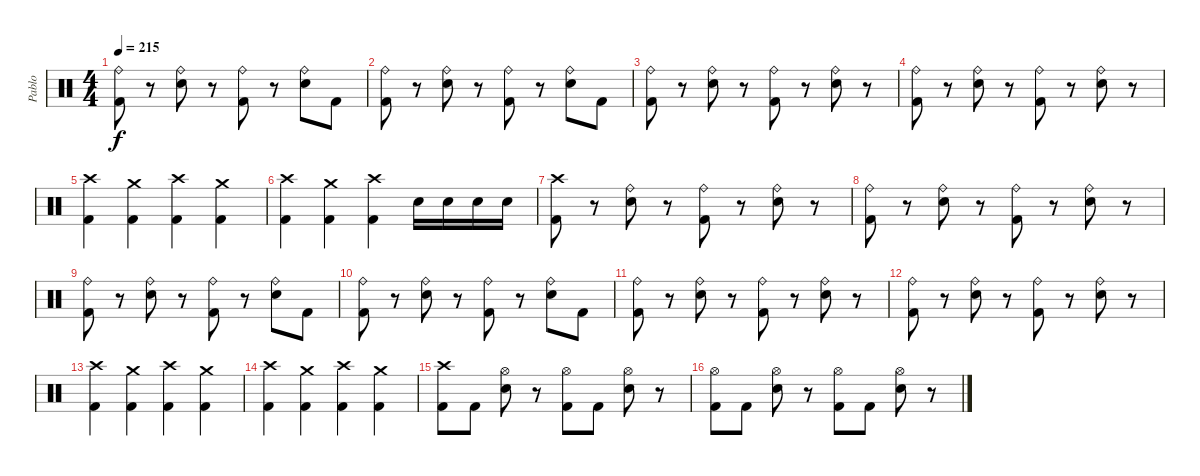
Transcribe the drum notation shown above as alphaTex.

\track ("Pablo" "Pablo") {instrument percussion}
\staff {score}
\articulation defaults
\ts (4 4)
\tempo 215
\clef neutral
\ks c
("Ride (bell)" "Kick (hit) 2").8{dy f} r.8 ("Ride (bell)" "Electric Snare (hit)").8 r.8 ("Ride (bell)" "Kick (hit) 2").8 r.8 ("Ride (bell)" "Electric Snare (hit)").8 "Kick (hit) 2".8 |
("Ride (bell)" "Kick (hit) 2").8 r.8 ("Ride (bell)" "Electric Snare (hit)").8 r.8 ("Ride (bell)" "Kick (hit) 2").8 r.8 ("Ride (bell)" "Electric Snare (hit)").8 "Kick (hit) 2".8 |
("Ride (bell)" "Kick (hit) 2").8 r.8 ("Ride (bell)" "Electric Snare (hit)").8 r.8 ("Ride (bell)" "Kick (hit) 2").8 r.8 ("Ride (bell)" "Electric Snare (hit)").8 r.8 |
("Ride (bell)" "Kick (hit) 2").8 r.8 ("Ride (bell)" "Electric Snare (hit)").8 r.8 ("Ride (bell)" "Kick (hit) 2").8 r.8 ("Ride (bell)" "Electric Snare (hit)").8 r.8 |
("Crash high (hit)" "Kick (hit) 2").4 ("Crash medium (hit)" "Kick (hit) 2").4 ("Crash high (hit)" "Kick (hit) 2").4 ("Crash medium (hit)" "Kick (hit) 2").4 |
("Crash high (hit)" "Kick (hit) 2").4 ("Crash medium (hit)" "Kick (hit) 2").4 ("Crash high (hit)" "Kick (hit) 2").4 "Electric Snare (hit)".16 "Electric Snare (hit)".16 "Electric Snare (hit)".16 "Electric Snare (hit)".16 |
("Crash high (hit)" "Kick (hit) 2").8 r.8 ("Ride (bell)" "Electric Snare (hit)").8 r.8 ("Ride (bell)" "Kick (hit) 2").8 r.8 ("Ride (bell)" "Electric Snare (hit)").8 r.8 |
("Ride (bell)" "Kick (hit) 2").8 r.8 ("Ride (bell)" "Electric Snare (hit)").8 r.8 ("Ride (bell)" "Kick (hit) 2").8 r.8 ("Ride (bell)" "Electric Snare (hit)").8 r.8 |
("Ride (bell)" "Kick (hit) 2").8 r.8 ("Ride (bell)" "Electric Snare (hit)").8 r.8 ("Ride (bell)" "Kick (hit) 2").8 r.8 ("Ride (bell)" "Electric Snare (hit)").8 "Kick (hit) 2".8 |
("Ride (bell)" "Kick (hit) 2").8 r.8 ("Ride (bell)" "Electric Snare (hit)").8 r.8 ("Ride (bell)" "Kick (hit) 2").8 r.8 ("Ride (bell)" "Electric Snare (hit)").8 "Kick (hit) 2".8 |
("Ride (bell)" "Kick (hit) 2").8 r.8 ("Ride (bell)" "Electric Snare (hit)").8 r.8 ("Ride (bell)" "Kick (hit) 2").8 r.8 ("Ride (bell)" "Electric Snare (hit)").8 r.8 |
("Ride (bell)" "Kick (hit) 2").8 r.8 ("Ride (bell)" "Electric Snare (hit)").8 r.8 ("Ride (bell)" "Kick (hit) 2").8 r.8 ("Ride (bell)" "Electric Snare (hit)").8 r.8 |
("Crash high (hit)" "Kick (hit) 2").4 ("Crash medium (hit)" "Kick (hit) 2").4 ("Crash high (hit)" "Kick (hit) 2").4 ("Crash medium (hit)" "Kick (hit) 2").4 |
("Crash high (hit)" "Kick (hit) 2").4 ("Crash medium (hit)" "Kick (hit) 2").4 ("Crash high (hit)" "Kick (hit) 2").4 ("Crash medium (hit)" "Kick (hit) 2").4 |
("Crash high (hit)" "Kick (hit) 2").8 "Kick (hit) 2".8 ("Hi-Hat (open)" "Electric Snare (hit)").8 r.8 ("Hi-Hat (open)" "Kick (hit) 2").8 "Kick (hit) 2".8 ("Hi-Hat (open)" "Electric Snare (hit)").8 r.8 |
("Hi-Hat (open)" "Kick (hit) 2").8 "Kick (hit) 2".8 ("Hi-Hat (open)" "Electric Snare (hit)").8 r.8 ("Hi-Hat (open)" "Kick (hit) 2").8 "Kick (hit) 2".8 ("Hi-Hat (open)" "Electric Snare (hit)").8 r.8
